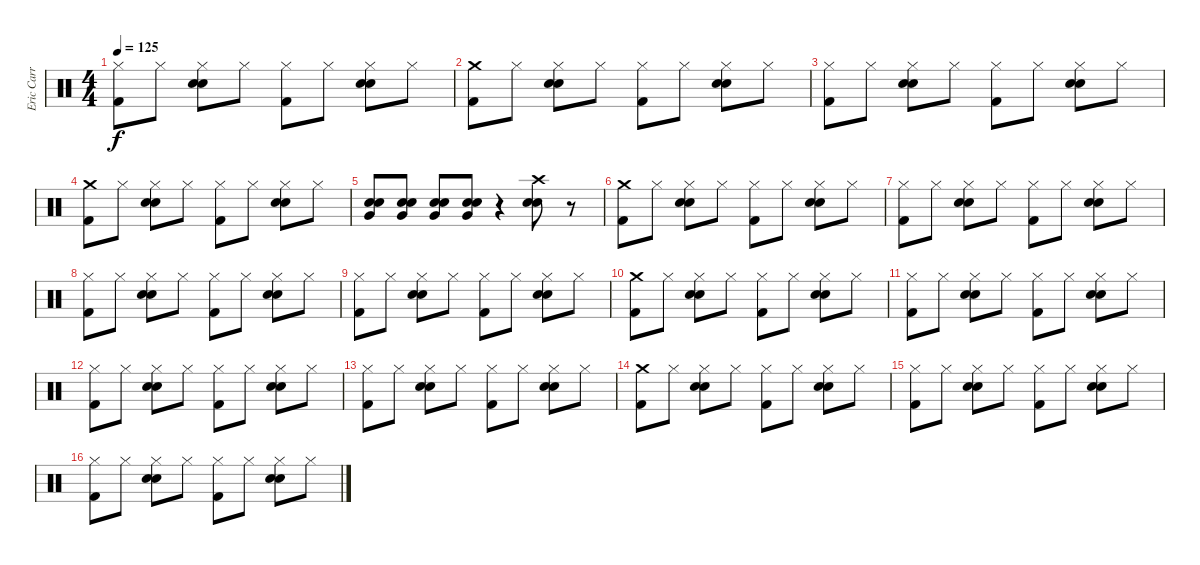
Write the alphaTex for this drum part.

\track ("Eric Carr" "Eric Carr") {instrument percussion}
\staff {score}
\articulation defaults
\ts (4 4)
\tempo 125
\clef neutral
\ks c
("Hi-Hat (closed)" "Kick (hit) 2").8{dy f} "Hi-Hat (closed)".8 ("Hi-Hat (closed)" "Electric Snare (hit)" "Snare (hit) 2").8 "Hi-Hat (closed)".8 ("Hi-Hat (closed)" "Kick (hit) 2").8 "Hi-Hat (closed)".8 ("Hi-Hat (closed)" "Snare (hit) 2" "Electric Snare (hit)").8 "Hi-Hat (closed)".8 |
("Crash medium (hit)" "Kick (hit) 2").8 "Hi-Hat (closed)".8 ("Hi-Hat (closed)" "Electric Snare (hit)" "Snare (hit) 2").8 "Hi-Hat (closed)".8 ("Hi-Hat (closed)" "Kick (hit) 2").8 "Hi-Hat (closed)".8 ("Hi-Hat (closed)" "Snare (hit) 2" "Electric Snare (hit)").8 "Hi-Hat (closed)".8 |
("Hi-Hat (closed)" "Kick (hit) 2").8 "Hi-Hat (closed)".8 ("Hi-Hat (closed)" "Electric Snare (hit)" "Snare (hit) 2").8 "Hi-Hat (closed)".8 ("Hi-Hat (closed)" "Kick (hit) 2").8 "Hi-Hat (closed)".8 ("Hi-Hat (closed)" "Snare (hit) 2" "Electric Snare (hit)").8 "Hi-Hat (closed)".8 |
("Crash medium (hit)" "Kick (hit) 2").8 "Hi-Hat (closed)".8 ("Hi-Hat (closed)" "Electric Snare (hit)" "Snare (hit) 2").8 "Hi-Hat (closed)".8 ("Hi-Hat (closed)" "Kick (hit) 2").8 "Hi-Hat (closed)".8 ("Hi-Hat (closed)" "Snare (hit) 2" "Electric Snare (hit)").8 "Hi-Hat (closed)".8 |
("Very Low Tom (hit)" "Electric Snare (hit)" "Snare (hit) 2").8 ("Very Low Tom (hit)" "Electric Snare (hit)" "Snare (hit) 2").8 ("Very Low Tom (hit)" "Electric Snare (hit)" "Snare (hit) 2").8 ("Very Low Tom (hit)" "Electric Snare (hit)" "Snare (hit) 2").8 r.4 ("Crash high (hit)" "Electric Snare (hit)" "Snare (hit) 2").8 r.8 |
("Crash medium (hit)" "Kick (hit) 2").8 "Hi-Hat (closed)".8 ("Hi-Hat (closed)" "Electric Snare (hit)" "Snare (hit) 2").8 "Hi-Hat (closed)".8 ("Hi-Hat (closed)" "Kick (hit) 2").8 "Hi-Hat (closed)".8 ("Hi-Hat (closed)" "Snare (hit) 2" "Electric Snare (hit)").8 "Hi-Hat (closed)".8 |
("Hi-Hat (closed)" "Kick (hit) 2").8 "Hi-Hat (closed)".8 ("Hi-Hat (closed)" "Electric Snare (hit)" "Snare (hit) 2").8 "Hi-Hat (closed)".8 ("Hi-Hat (closed)" "Kick (hit) 2").8 "Hi-Hat (closed)".8 ("Hi-Hat (closed)" "Snare (hit) 2" "Electric Snare (hit)").8 "Hi-Hat (closed)".8 |
("Hi-Hat (closed)" "Kick (hit) 2").8 "Hi-Hat (closed)".8 ("Hi-Hat (closed)" "Electric Snare (hit)" "Snare (hit) 2").8 "Hi-Hat (closed)".8 ("Hi-Hat (closed)" "Kick (hit) 2").8 "Hi-Hat (closed)".8 ("Hi-Hat (closed)" "Snare (hit) 2" "Electric Snare (hit)").8 "Hi-Hat (closed)".8 |
("Hi-Hat (closed)" "Kick (hit) 2").8 "Hi-Hat (closed)".8 ("Hi-Hat (closed)" "Electric Snare (hit)" "Snare (hit) 2").8 "Hi-Hat (closed)".8 ("Hi-Hat (closed)" "Kick (hit) 2").8 "Hi-Hat (closed)".8 ("Hi-Hat (closed)" "Snare (hit) 2" "Electric Snare (hit)").8 "Hi-Hat (closed)".8 |
("Crash medium (hit)" "Kick (hit) 2").8 "Hi-Hat (closed)".8 ("Hi-Hat (closed)" "Electric Snare (hit)" "Snare (hit) 2").8 "Hi-Hat (closed)".8 ("Hi-Hat (closed)" "Kick (hit) 2").8 "Hi-Hat (closed)".8 ("Hi-Hat (closed)" "Snare (hit) 2" "Electric Snare (hit)").8 "Hi-Hat (closed)".8 |
("Hi-Hat (closed)" "Kick (hit) 2").8 "Hi-Hat (closed)".8 ("Hi-Hat (closed)" "Electric Snare (hit)" "Snare (hit) 2").8 "Hi-Hat (closed)".8 ("Hi-Hat (closed)" "Kick (hit) 2").8 "Hi-Hat (closed)".8 ("Hi-Hat (closed)" "Snare (hit) 2" "Electric Snare (hit)").8 "Hi-Hat (closed)".8 |
("Hi-Hat (closed)" "Kick (hit) 2").8 "Hi-Hat (closed)".8 ("Hi-Hat (closed)" "Electric Snare (hit)" "Snare (hit) 2").8 "Hi-Hat (closed)".8 ("Hi-Hat (closed)" "Kick (hit) 2").8 "Hi-Hat (closed)".8 ("Hi-Hat (closed)" "Snare (hit) 2" "Electric Snare (hit)").8 "Hi-Hat (closed)".8 |
("Hi-Hat (closed)" "Kick (hit) 2").8 "Hi-Hat (closed)".8 ("Hi-Hat (closed)" "Electric Snare (hit)" "Snare (hit) 2").8 "Hi-Hat (closed)".8 ("Hi-Hat (closed)" "Kick (hit) 2").8 "Hi-Hat (closed)".8 ("Hi-Hat (closed)" "Snare (hit) 2" "Electric Snare (hit)").8 "Hi-Hat (closed)".8 |
("Crash medium (hit)" "Kick (hit) 2").8 "Hi-Hat (closed)".8 ("Hi-Hat (closed)" "Electric Snare (hit)" "Snare (hit) 2").8 "Hi-Hat (closed)".8 ("Hi-Hat (closed)" "Kick (hit) 2").8 "Hi-Hat (closed)".8 ("Hi-Hat (closed)" "Snare (hit) 2" "Electric Snare (hit)").8 "Hi-Hat (closed)".8 |
("Hi-Hat (closed)" "Kick (hit) 2").8 "Hi-Hat (closed)".8 ("Hi-Hat (closed)" "Electric Snare (hit)" "Snare (hit) 2").8 "Hi-Hat (closed)".8 ("Hi-Hat (closed)" "Kick (hit) 2").8 "Hi-Hat (closed)".8 ("Hi-Hat (closed)" "Snare (hit) 2" "Electric Snare (hit)").8 "Hi-Hat (closed)".8 |
("Hi-Hat (closed)" "Kick (hit) 2").8 "Hi-Hat (closed)".8 ("Hi-Hat (closed)" "Electric Snare (hit)" "Snare (hit) 2").8 "Hi-Hat (closed)".8 ("Hi-Hat (closed)" "Kick (hit) 2").8 "Hi-Hat (closed)".8 ("Hi-Hat (closed)" "Snare (hit) 2" "Electric Snare (hit)").8 "Hi-Hat (closed)".8
